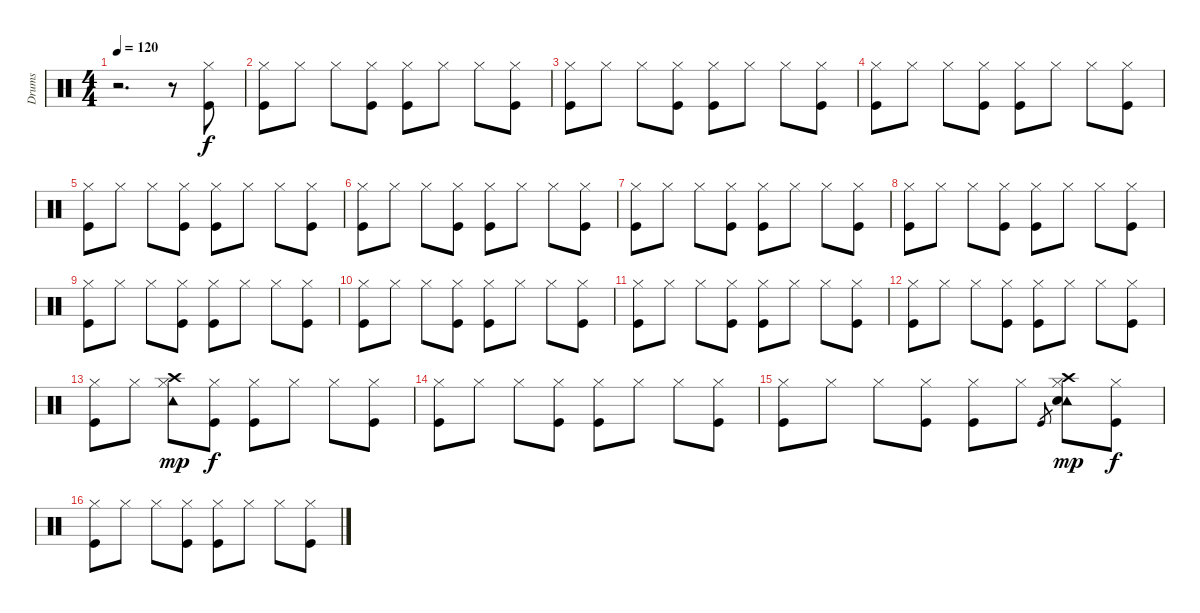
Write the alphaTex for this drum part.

\track ("Drums" "Drums") {instrument percussion}
\staff {score}
\articulation defaults
\ts (4 4)
\tempo 120
\clef neutral
\ks c
r.2{d dy f} r.8{volume 0} ("Hi-Hat (closed)" "Kick (hit)").8{volume 3} |
("Hi-Hat (closed)" "Kick (hit)").8 "Hi-Hat (closed)".8 "Hi-Hat (closed)".8 ("Hi-Hat (closed)" "Kick (hit)").8 ("Hi-Hat (closed)" "Kick (hit)").8 "Hi-Hat (closed)".8 "Hi-Hat (closed)".8 ("Hi-Hat (closed)" "Kick (hit)").8 |
("Hi-Hat (closed)" "Kick (hit)").8 "Hi-Hat (closed)".8 "Hi-Hat (closed)".8 ("Hi-Hat (closed)" "Kick (hit)").8 ("Hi-Hat (closed)" "Kick (hit)").8 "Hi-Hat (closed)".8 "Hi-Hat (closed)".8 ("Hi-Hat (closed)" "Kick (hit)").8 |
("Hi-Hat (closed)" "Kick (hit)").8{volume 16} "Hi-Hat (closed)".8 "Hi-Hat (closed)".8 ("Hi-Hat (closed)" "Kick (hit)").8 ("Hi-Hat (closed)" "Kick (hit)").8 "Hi-Hat (closed)".8 "Hi-Hat (closed)".8 ("Hi-Hat (closed)" "Kick (hit)").8 |
("Hi-Hat (closed)" "Kick (hit)").8 "Hi-Hat (closed)".8 "Hi-Hat (closed)".8 ("Hi-Hat (closed)" "Kick (hit)").8 ("Hi-Hat (closed)" "Kick (hit)").8 "Hi-Hat (closed)".8 "Hi-Hat (closed)".8 ("Hi-Hat (closed)" "Kick (hit)").8 |
("Hi-Hat (closed)" "Kick (hit)").8 "Hi-Hat (closed)".8 "Hi-Hat (closed)".8 ("Hi-Hat (closed)" "Kick (hit)").8 ("Hi-Hat (closed)" "Kick (hit)").8 "Hi-Hat (closed)".8 "Hi-Hat (closed)".8 ("Hi-Hat (closed)" "Kick (hit)").8 |
("Hi-Hat (closed)" "Kick (hit)").8 "Hi-Hat (closed)".8 "Hi-Hat (closed)".8 ("Hi-Hat (closed)" "Kick (hit)").8 ("Hi-Hat (closed)" "Kick (hit)").8 "Hi-Hat (closed)".8 "Hi-Hat (closed)".8 ("Hi-Hat (closed)" "Kick (hit)").8 |
("Hi-Hat (closed)" "Kick (hit)").8 "Hi-Hat (closed)".8 "Hi-Hat (closed)".8 ("Hi-Hat (closed)" "Kick (hit)").8 ("Hi-Hat (closed)" "Kick (hit)").8 "Hi-Hat (closed)".8 "Hi-Hat (closed)".8 ("Hi-Hat (closed)" "Kick (hit)").8 |
("Hi-Hat (closed)" "Kick (hit)").8 "Hi-Hat (closed)".8 "Hi-Hat (closed)".8 ("Hi-Hat (closed)" "Kick (hit)").8 ("Hi-Hat (closed)" "Kick (hit)").8 "Hi-Hat (closed)".8 "Hi-Hat (closed)".8 ("Hi-Hat (closed)" "Kick (hit)").8 |
("Hi-Hat (closed)" "Kick (hit)").8 "Hi-Hat (closed)".8 "Hi-Hat (closed)".8 ("Hi-Hat (closed)" "Kick (hit)").8 ("Hi-Hat (closed)" "Kick (hit)").8 "Hi-Hat (closed)".8 "Hi-Hat (closed)".8 ("Hi-Hat (closed)" "Kick (hit)").8 |
("Hi-Hat (closed)" "Kick (hit)").8 "Hi-Hat (closed)".8 "Hi-Hat (closed)".8 ("Hi-Hat (closed)" "Kick (hit)").8 ("Hi-Hat (closed)" "Kick (hit)").8 "Hi-Hat (closed)".8 "Hi-Hat (closed)".8 ("Hi-Hat (closed)" "Kick (hit)").8 |
("Hi-Hat (closed)" "Kick (hit)").8 "Hi-Hat (closed)".8 "Hi-Hat (closed)".8 ("Hi-Hat (closed)" "Kick (hit)").8 ("Hi-Hat (closed)" "Kick (hit)").8 "Hi-Hat (closed)".8 "Hi-Hat (closed)".8 ("Hi-Hat (closed)" "Kick (hit)").8 |
("Hi-Hat (closed)" "Kick (hit)").8 "Hi-Hat (closed)".8 ("Crash high (hit)" "Tambourine (hit)" "Hi-Hat (closed)").8{dy mp} ("Hi-Hat (closed)" "Kick (hit)").8{dy f} ("Hi-Hat (closed)" "Kick (hit)").8 "Hi-Hat (closed)".8 "Hi-Hat (closed)".8 ("Hi-Hat (closed)" "Kick (hit)").8 |
("Hi-Hat (closed)" "Kick (hit)").8 "Hi-Hat (closed)".8 "Hi-Hat (closed)".8 ("Hi-Hat (closed)" "Kick (hit)").8 ("Hi-Hat (closed)" "Kick (hit)").8 "Hi-Hat (closed)".8 "Hi-Hat (closed)".8 ("Hi-Hat (closed)" "Kick (hit)").8 |
("Hi-Hat (closed)" "Kick (hit)").8 "Hi-Hat (closed)".8 "Hi-Hat (closed)".8 ("Hi-Hat (closed)" "Kick (hit)").8 ("Hi-Hat (closed)" "Kick (hit)").8 "Hi-Hat (closed)".8 "Kick (hit)".8{gr} ("Crash high (hit)" "Tambourine (hit)" "Snare (hit) 2" "Hi-Hat (closed)").8{dy mp} ("Hi-Hat (closed)" "Kick (hit)").8{dy f} |
("Hi-Hat (closed)" "Kick (hit)").8 "Hi-Hat (closed)".8 "Hi-Hat (closed)".8 ("Hi-Hat (closed)" "Kick (hit)").8 ("Hi-Hat (closed)" "Kick (hit)").8 "Hi-Hat (closed)".8 "Hi-Hat (closed)".8 ("Hi-Hat (closed)" "Kick (hit)").8
